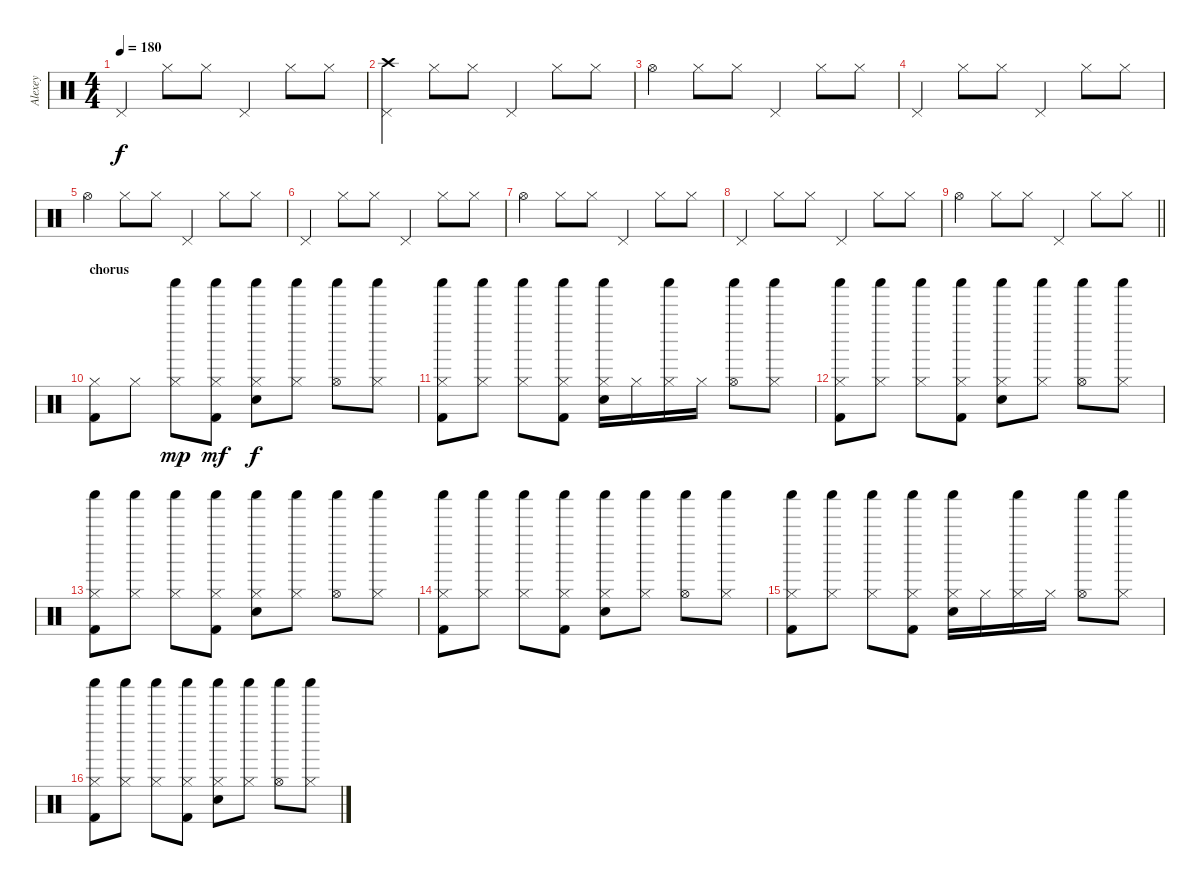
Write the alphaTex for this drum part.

\track ("Alexey" "Alexey") {instrument percussion}
\staff {score}
\articulation defaults
\ts (4 4)
\tempo 180
\clef neutral
\ks c "Pedal Hi-Hat (hit)".4{dy f} "Hi-Hat (closed)".8 "Hi-Hat (closed)".8 "Pedal Hi-Hat (hit)".4 "Hi-Hat (closed)".8 "Hi-Hat (closed)".8
|
("Pedal Hi-Hat (hit)" "Crash high (hit)").4 "Hi-Hat (closed)".8 "Hi-Hat (closed)".8 "Pedal Hi-Hat (hit)".4 "Hi-Hat (closed)".8 "Hi-Hat (closed)".8 |
"Hi-Hat (open)".4 "Hi-Hat (closed)".8 "Hi-Hat (closed)".8 "Pedal Hi-Hat (hit)".4 "Hi-Hat (closed)".8 "Hi-Hat (closed)".8 |
"Pedal Hi-Hat (hit)".4 "Hi-Hat (closed)".8 "Hi-Hat (closed)".8 "Pedal Hi-Hat (hit)".4 "Hi-Hat (closed)".8 "Hi-Hat (closed)".8 |
"Hi-Hat (open)".4 "Hi-Hat (closed)".8 "Hi-Hat (closed)".8 "Pedal Hi-Hat (hit)".4 "Hi-Hat (closed)".8 "Hi-Hat (closed)".8 |
"Pedal Hi-Hat (hit)".4 "Hi-Hat (closed)".8 "Hi-Hat (closed)".8 "Pedal Hi-Hat (hit)".4 "Hi-Hat (closed)".8 "Hi-Hat (closed)".8 |
"Hi-Hat (open)".4 "Hi-Hat (closed)".8 "Hi-Hat (closed)".8 "Pedal Hi-Hat (hit)".4 "Hi-Hat (closed)".8 "Hi-Hat (closed)".8 |
"Pedal Hi-Hat (hit)".4 "Hi-Hat (closed)".8 "Hi-Hat (closed)".8 "Pedal Hi-Hat (hit)".4 "Hi-Hat (closed)".8 "Hi-Hat (closed)".8 |
\barLineRight lightlight "Hi-Hat (open)".4 "Hi-Hat (closed)".8 "Hi-Hat (closed)".8 "Pedal Hi-Hat (hit)".4 "Hi-Hat (closed)".8 "Hi-Hat (closed)".8
|
\section ("" "chorus")
("Hi-Hat (closed)" "Kick (hit) 2").8 "Hi-Hat (closed)".8 ("Hi-Hat (closed)" "Shaker (hit)").8{dy mp} ("Hi-Hat (closed)" "Shaker (hit)" "Kick (hit) 2").8{dy mf} ("Hi-Hat (closed)" "Shaker (hit)" "Snare (hit) 2").8{dy f} ("Hi-Hat (closed)" "Shaker (hit)").8 ("Hi-Hat (open)" "Shaker (hit)").8 ("Hi-Hat (closed)" "Shaker (hit)").8 |
("Hi-Hat (closed)" "Shaker (hit)" "Kick (hit) 2").8 ("Hi-Hat (closed)" "Shaker (hit)").8 ("Hi-Hat (closed)" "Shaker (hit)").8 ("Hi-Hat (closed)" "Shaker (hit)" "Kick (hit) 2").8 ("Hi-Hat (closed)" "Shaker (hit)" "Snare (hit) 2").16 "Hi-Hat (closed)".16 ("Hi-Hat (closed)" "Shaker (hit)").16 "Hi-Hat (closed)".16 ("Hi-Hat (open)" "Shaker (hit)").8 ("Hi-Hat (closed)" "Shaker (hit)").8 |
("Hi-Hat (closed)" "Shaker (hit)" "Kick (hit) 2").8 ("Hi-Hat (closed)" "Shaker (hit)").8 ("Hi-Hat (closed)" "Shaker (hit)").8 ("Hi-Hat (closed)" "Shaker (hit)" "Kick (hit) 2").8 ("Hi-Hat (closed)" "Shaker (hit)" "Snare (hit) 2").8 ("Hi-Hat (closed)" "Shaker (hit)").8 ("Hi-Hat (open)" "Shaker (hit)").8 ("Hi-Hat (closed)" "Shaker (hit)").8 |
("Hi-Hat (closed)" "Shaker (hit)" "Kick (hit) 2").8 ("Hi-Hat (closed)" "Shaker (hit)").8 ("Hi-Hat (closed)" "Shaker (hit)").8 ("Hi-Hat (closed)" "Shaker (hit)" "Kick (hit) 2").8 ("Hi-Hat (closed)" "Shaker (hit)" "Snare (hit) 2").8 ("Hi-Hat (closed)" "Shaker (hit)").8 ("Hi-Hat (open)" "Shaker (hit)").8 ("Hi-Hat (closed)" "Shaker (hit)").8 |
("Hi-Hat (closed)" "Shaker (hit)" "Kick (hit) 2").8 ("Hi-Hat (closed)" "Shaker (hit)").8 ("Hi-Hat (closed)" "Shaker (hit)").8 ("Hi-Hat (closed)" "Shaker (hit)" "Kick (hit) 2").8 ("Hi-Hat (closed)" "Shaker (hit)" "Snare (hit) 2").8 ("Hi-Hat (closed)" "Shaker (hit)").8 ("Hi-Hat (open)" "Shaker (hit)").8 ("Hi-Hat (closed)" "Shaker (hit)").8 |
("Hi-Hat (closed)" "Shaker (hit)" "Kick (hit) 2").8 ("Hi-Hat (closed)" "Shaker (hit)").8 ("Hi-Hat (closed)" "Shaker (hit)").8 ("Hi-Hat (closed)" "Shaker (hit)" "Kick (hit) 2").8 ("Hi-Hat (closed)" "Shaker (hit)" "Snare (hit) 2").16 "Hi-Hat (closed)".16 ("Hi-Hat (closed)" "Shaker (hit)").16 "Hi-Hat (closed)".16 ("Hi-Hat (open)" "Shaker (hit)").8 ("Hi-Hat (closed)" "Shaker (hit)").8 |
("Hi-Hat (closed)" "Shaker (hit)" "Kick (hit) 2").8 ("Hi-Hat (closed)" "Shaker (hit)").8 ("Hi-Hat (closed)" "Shaker (hit)").8 ("Hi-Hat (closed)" "Shaker (hit)" "Kick (hit) 2").8 ("Hi-Hat (closed)" "Shaker (hit)" "Snare (hit) 2").8 ("Hi-Hat (closed)" "Shaker (hit)").8 ("Hi-Hat (open)" "Shaker (hit)").8 ("Hi-Hat (closed)" "Shaker (hit)").8
